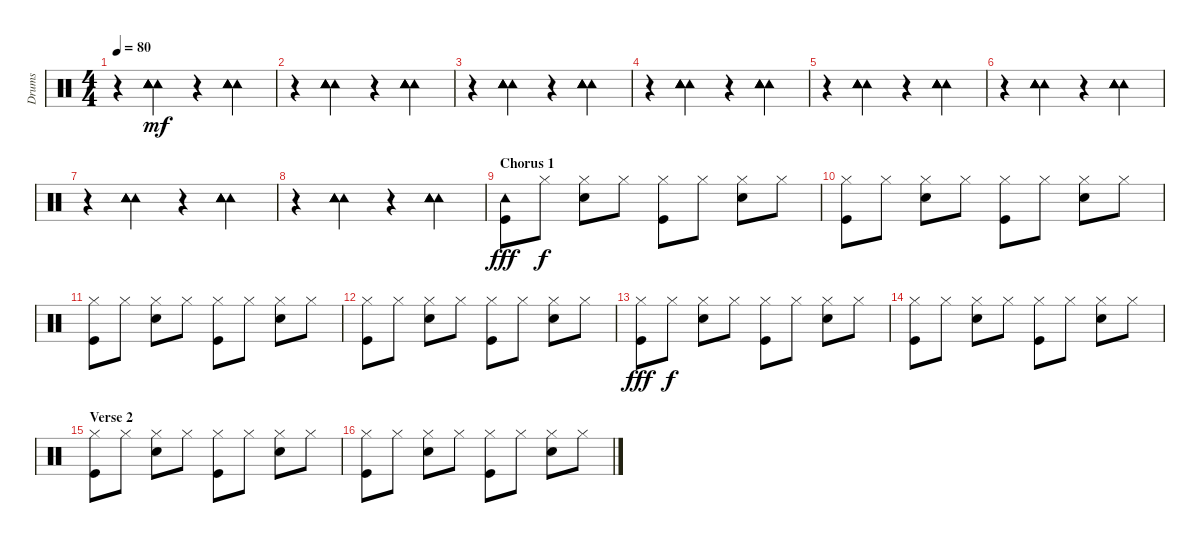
\track ("Drums" "Drums") {instrument percussion}
\staff {score}
\articulation defaults
\ts (4 4)
\tempo 80
\clef neutral
\ks c
r.4{dy mf} ("Tambourine (hit)" "Tambourine (hit)" "Tambourine (hit)" "Tambourine (hit)").4{bd 30} r.4 ("Tambourine (hit)" "Tambourine (hit)" "Tambourine (hit)" "Tambourine (hit)").4{bd 30} |
r.4 ("Tambourine (hit)" "Tambourine (hit)" "Tambourine (hit)" "Tambourine (hit)").4{bd 30} r.4 ("Tambourine (hit)" "Tambourine (hit)" "Tambourine (hit)" "Tambourine (hit)").4{bd 30} |
r.4 ("Tambourine (hit)" "Tambourine (hit)" "Tambourine (hit)" "Tambourine (hit)").4{bd 30} r.4 ("Tambourine (hit)" "Tambourine (hit)" "Tambourine (hit)" "Tambourine (hit)").4{bd 30} |
r.4 ("Tambourine (hit)" "Tambourine (hit)" "Tambourine (hit)" "Tambourine (hit)").4{bd 30} r.4 ("Tambourine (hit)" "Tambourine (hit)" "Tambourine (hit)" "Tambourine (hit)").4{bd 30} |
r.4 ("Tambourine (hit)" "Tambourine (hit)" "Tambourine (hit)" "Tambourine (hit)").4{bd 30} r.4 ("Tambourine (hit)" "Tambourine (hit)" "Tambourine (hit)" "Tambourine (hit)").4{bd 30} |
r.4 ("Tambourine (hit)" "Tambourine (hit)" "Tambourine (hit)" "Tambourine (hit)").4{bd 30} r.4 ("Tambourine (hit)" "Tambourine (hit)" "Tambourine (hit)" "Tambourine (hit)").4{bd 30} |
r.4 ("Tambourine (hit)" "Tambourine (hit)" "Tambourine (hit)" "Tambourine (hit)").4{bd 30} r.4 ("Tambourine (hit)" "Tambourine (hit)" "Tambourine (hit)" "Tambourine (hit)").4{bd 30} |
r.4 ("Tambourine (hit)" "Tambourine (hit)" "Tambourine (hit)" "Tambourine (hit)").4{bd 30} r.4 ("Tambourine (hit)" "Tambourine (hit)" "Tambourine (hit)" "Tambourine (hit)").4{bd 30} |
\section ("" "Chorus 1")
("Tambourine (hit)" "Kick (hit)").8{dy fff} "Hi-Hat (closed)".8{dy f} ("Hi-Hat (closed)" "Snare (hit) 2").8 "Hi-Hat (closed)".8 ("Hi-Hat (closed)" "Kick (hit)").8 "Hi-Hat (closed)".8 ("Hi-Hat (closed)" "Snare (hit) 2").8 "Hi-Hat (closed)".8 |
("Hi-Hat (closed)" "Kick (hit)").8 "Hi-Hat (closed)".8 ("Hi-Hat (closed)" "Snare (hit) 2").8 "Hi-Hat (closed)".8 ("Hi-Hat (closed)" "Kick (hit)").8 "Hi-Hat (closed)".8 ("Hi-Hat (closed)" "Snare (hit) 2").8 "Hi-Hat (closed)".8 |
("Hi-Hat (closed)" "Kick (hit)").8 "Hi-Hat (closed)".8 ("Hi-Hat (closed)" "Snare (hit) 2").8 "Hi-Hat (closed)".8 ("Hi-Hat (closed)" "Kick (hit)").8 "Hi-Hat (closed)".8 ("Hi-Hat (closed)" "Snare (hit) 2").8 "Hi-Hat (closed)".8 |
("Hi-Hat (closed)" "Kick (hit)").8 "Hi-Hat (closed)".8 ("Hi-Hat (closed)" "Snare (hit) 2").8 "Hi-Hat (closed)".8 ("Hi-Hat (closed)" "Kick (hit)").8 "Hi-Hat (closed)".8 ("Hi-Hat (closed)" "Snare (hit) 2").8 "Hi-Hat (closed)".8 |
("Hi-Hat (closed)" "Kick (hit)").8{dy fff} "Hi-Hat (closed)".8{dy f} ("Hi-Hat (closed)" "Snare (hit) 2").8 "Hi-Hat (closed)".8 ("Hi-Hat (closed)" "Kick (hit)").8 "Hi-Hat (closed)".8 ("Hi-Hat (closed)" "Snare (hit) 2").8 "Hi-Hat (closed)".8 |
("Hi-Hat (closed)" "Kick (hit)").8 "Hi-Hat (closed)".8 ("Hi-Hat (closed)" "Snare (hit) 2").8 "Hi-Hat (closed)".8 ("Hi-Hat (closed)" "Kick (hit)").8 "Hi-Hat (closed)".8 ("Hi-Hat (closed)" "Snare (hit) 2").8 "Hi-Hat (closed)".8 |
\section ("" "Verse 2")
("Hi-Hat (closed)" "Kick (hit)").8 "Hi-Hat (closed)".8 ("Hi-Hat (closed)" "Snare (hit) 2").8 "Hi-Hat (closed)".8 ("Hi-Hat (closed)" "Kick (hit)").8 "Hi-Hat (closed)".8 ("Hi-Hat (closed)" "Snare (hit) 2").8 "Hi-Hat (closed)".8 |
("Hi-Hat (closed)" "Kick (hit)").8 "Hi-Hat (closed)".8 ("Hi-Hat (closed)" "Snare (hit) 2").8 "Hi-Hat (closed)".8 ("Hi-Hat (closed)" "Kick (hit)").8 "Hi-Hat (closed)".8 ("Hi-Hat (closed)" "Snare (hit) 2").8 "Hi-Hat (closed)".8
